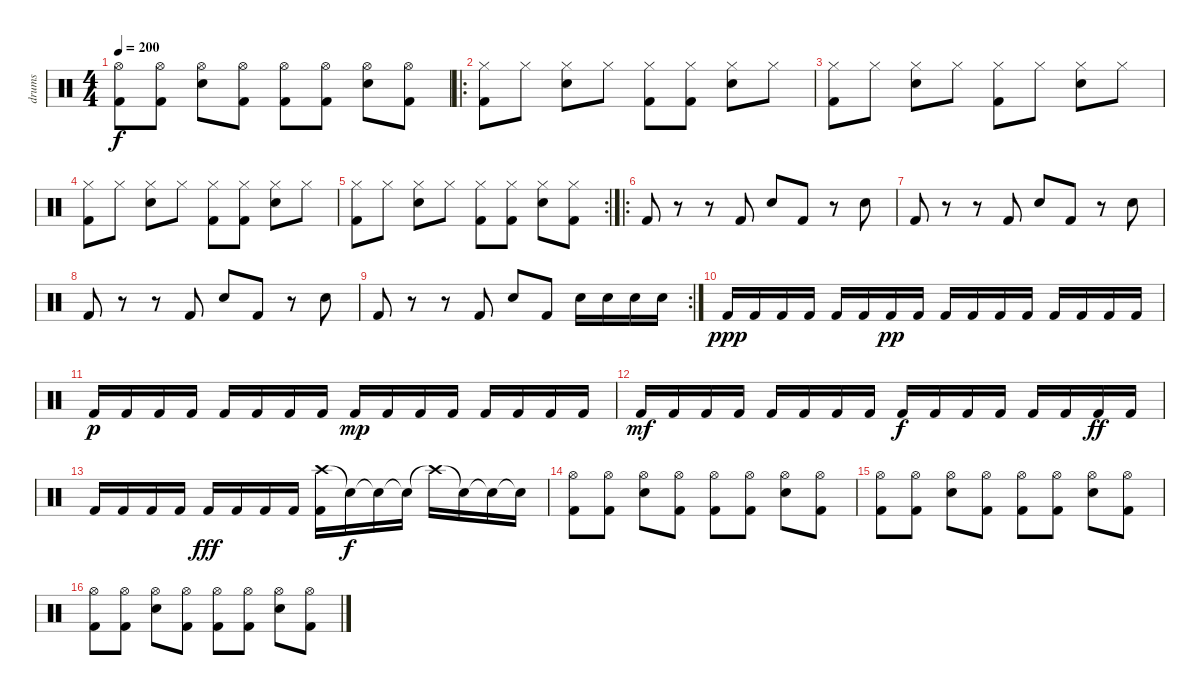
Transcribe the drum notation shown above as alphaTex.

\track ("drums" "drums") {instrument percussion}
\staff {score}
\articulation defaults
\ts (4 4)
\tempo 200
\clef neutral
\ks c
("Hi-Hat (open)" "Kick (hit) 2").8{dy f} ("Hi-Hat (open)" "Kick (hit) 2").8 ("Hi-Hat (open)" "Electric Snare (hit)").8 ("Hi-Hat (open)" "Kick (hit) 2").8 ("Hi-Hat (open)" "Kick (hit) 2").8 ("Hi-Hat (open)" "Kick (hit) 2").8 ("Hi-Hat (open)" "Electric Snare (hit)").8 ("Hi-Hat (open)" "Kick (hit) 2").8 |
\ro
("Kick (hit) 2" "Hi-Hat (closed)").8 "Hi-Hat (closed)".8 ("Electric Snare (hit)" "Hi-Hat (closed)").8 "Hi-Hat (closed)".8 ("Kick (hit) 2" "Hi-Hat (closed)").8 ("Kick (hit) 2" "Hi-Hat (closed)").8 ("Electric Snare (hit)" "Hi-Hat (closed)").8 "Hi-Hat (closed)".8 |
("Kick (hit) 2" "Hi-Hat (closed)").8 "Hi-Hat (closed)".8 ("Electric Snare (hit)" "Hi-Hat (closed)").8 "Hi-Hat (closed)".8 ("Kick (hit) 2" "Hi-Hat (closed)").8 "Hi-Hat (closed)".8 ("Electric Snare (hit)" "Hi-Hat (closed)").8 "Hi-Hat (closed)".8 |
("Kick (hit) 2" "Hi-Hat (closed)").8 "Hi-Hat (closed)".8 ("Electric Snare (hit)" "Hi-Hat (closed)").8 "Hi-Hat (closed)".8 ("Kick (hit) 2" "Hi-Hat (closed)").8 ("Kick (hit) 2" "Hi-Hat (closed)").8 ("Electric Snare (hit)" "Hi-Hat (closed)").8 "Hi-Hat (closed)".8 |
\rc 2
("Kick (hit) 2" "Hi-Hat (closed)").8 "Hi-Hat (closed)".8 ("Electric Snare (hit)" "Hi-Hat (closed)").8 "Hi-Hat (closed)".8 ("Kick (hit) 2" "Hi-Hat (closed)").8 ("Kick (hit) 2" "Hi-Hat (closed)").8 ("Electric Snare (hit)" "Hi-Hat (closed)").8 ("Kick (hit) 2" "Hi-Hat (closed)").8 |
\ro "Kick (hit) 2".8
r.8 r.8 "Kick (hit) 2".8 "Electric Snare (hit)".8 "Kick (hit) 2".8 r.8 "Electric Snare (hit)".8 |
"Kick (hit) 2".8 r.8 r.8 "Kick (hit) 2".8 "Electric Snare (hit)".8 "Kick (hit) 2".8 r.8 "Electric Snare (hit)".8 |
"Kick (hit) 2".8 r.8 r.8 "Kick (hit) 2".8 "Electric Snare (hit)".8 "Kick (hit) 2".8 r.8 "Electric Snare (hit)".8 |
\rc 2 "Kick (hit) 2".8
r.8 r.8 "Kick (hit) 2".8 "Electric Snare (hit)".8 "Kick (hit) 2".8 "Electric Snare (hit)".16 "Electric Snare (hit)".16 "Electric Snare (hit)".16 "Electric Snare (hit)".16 |
"Kick (hit) 2".16{dy ppp} "Kick (hit) 2".16 "Kick (hit) 2".16 "Kick (hit) 2".16 "Kick (hit) 2".16 "Kick (hit) 2".16 "Kick (hit) 2".16{dy pp} "Kick (hit) 2".16 "Kick (hit) 2".16 "Kick (hit) 2".16 "Kick (hit) 2".16 "Kick (hit) 2".16 "Kick (hit) 2".16 "Kick (hit) 2".16 "Kick (hit) 2".16 "Kick (hit) 2".16 |
"Kick (hit) 2".16{dy p} "Kick (hit) 2".16 "Kick (hit) 2".16 "Kick (hit) 2".16 "Kick (hit) 2".16 "Kick (hit) 2".16 "Kick (hit) 2".16 "Kick (hit) 2".16 "Kick (hit) 2".16{dy mp} "Kick (hit) 2".16 "Kick (hit) 2".16 "Kick (hit) 2".16 "Kick (hit) 2".16 "Kick (hit) 2".16 "Kick (hit) 2".16 "Kick (hit) 2".16 |
"Kick (hit) 2".16{dy mf} "Kick (hit) 2".16 "Kick (hit) 2".16 "Kick (hit) 2".16 "Kick (hit) 2".16 "Kick (hit) 2".16 "Kick (hit) 2".16 "Kick (hit) 2".16 "Kick (hit) 2".16{dy f} "Kick (hit) 2".16 "Kick (hit) 2".16 "Kick (hit) 2".16 "Kick (hit) 2".16 "Kick (hit) 2".16 "Kick (hit) 2".16{dy ff} "Kick (hit) 2".16 |
"Kick (hit) 2".16 "Kick (hit) 2".16 "Kick (hit) 2".16 "Kick (hit) 2".16 "Kick (hit) 2".16{dy fff} "Kick (hit) 2".16 "Kick (hit) 2".16 "Kick (hit) 2".16 ("Crash high (hit)" "Kick (hit) 2").16 "Snare (hit)"{t}.16{dy f} "Snare (hit)"{t}.16 "Snare (hit)"{t}.16 "Crash high (hit)"{t}.16 "Snare (hit)"{t}.16 "Snare (hit)"{t}.16 "Snare (hit)"{t}.16 |
("Hi-Hat (open)" "Kick (hit) 2").8 ("Hi-Hat (open)" "Kick (hit) 2").8 ("Hi-Hat (open)" "Electric Snare (hit)").8 ("Hi-Hat (open)" "Kick (hit) 2").8 ("Hi-Hat (open)" "Kick (hit) 2").8 ("Hi-Hat (open)" "Kick (hit) 2").8 ("Hi-Hat (open)" "Electric Snare (hit)").8 ("Hi-Hat (open)" "Kick (hit) 2").8 |
("Hi-Hat (open)" "Kick (hit) 2").8 ("Hi-Hat (open)" "Kick (hit) 2").8 ("Hi-Hat (open)" "Electric Snare (hit)").8 ("Hi-Hat (open)" "Kick (hit) 2").8 ("Hi-Hat (open)" "Kick (hit) 2").8 ("Hi-Hat (open)" "Kick (hit) 2").8 ("Hi-Hat (open)" "Electric Snare (hit)").8 ("Hi-Hat (open)" "Kick (hit) 2").8 |
("Hi-Hat (open)" "Kick (hit) 2").8 ("Hi-Hat (open)" "Kick (hit) 2").8 ("Hi-Hat (open)" "Electric Snare (hit)").8 ("Hi-Hat (open)" "Kick (hit) 2").8 ("Hi-Hat (open)" "Kick (hit) 2").8 ("Hi-Hat (open)" "Kick (hit) 2").8 ("Hi-Hat (open)" "Electric Snare (hit)").8 ("Hi-Hat (open)" "Kick (hit) 2").8
